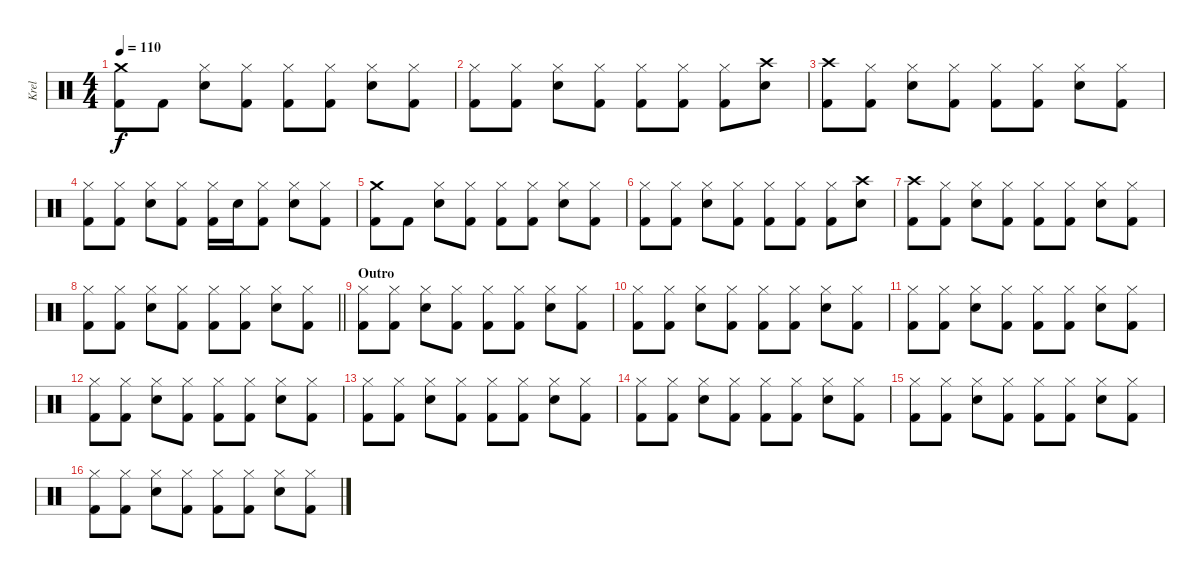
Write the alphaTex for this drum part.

\track ("Krel" "Krel") {instrument percussion}
\staff {score}
\articulation defaults
\ts (4 4)
\tempo 110
\clef neutral
\ks c
("Crash medium (hit)" "Kick (hit) 2").8{dy f} "Kick (hit) 2".8 ("Hi-Hat (closed)" "Snare (hit) 2").8 ("Hi-Hat (closed)" "Kick (hit) 2").8 ("Hi-Hat (closed)" "Kick (hit) 2").8 ("Hi-Hat (closed)" "Kick (hit) 2").8 ("Hi-Hat (closed)" "Snare (hit) 2").8 ("Hi-Hat (closed)" "Kick (hit) 2").8 |
("Hi-Hat (closed)" "Kick (hit) 2").8 ("Hi-Hat (closed)" "Kick (hit) 2").8 ("Hi-Hat (closed)" "Snare (hit) 2").8 ("Hi-Hat (closed)" "Kick (hit) 2").8 ("Hi-Hat (closed)" "Kick (hit) 2").8 ("Hi-Hat (closed)" "Kick (hit) 2").8 ("Hi-Hat (closed)" "Kick (hit) 2").8 ("Crash high (hit)" "Snare (hit) 2").8 |
("Crash high (hit)" "Kick (hit) 2").8 ("Hi-Hat (closed)" "Kick (hit) 2").8 ("Hi-Hat (closed)" "Snare (hit) 2").8 ("Hi-Hat (closed)" "Kick (hit) 2").8 ("Hi-Hat (closed)" "Kick (hit) 2").8 ("Hi-Hat (closed)" "Kick (hit) 2").8 ("Hi-Hat (closed)" "Snare (hit) 2").8 ("Hi-Hat (closed)" "Kick (hit) 2").8 |
("Hi-Hat (closed)" "Kick (hit) 2").8 ("Hi-Hat (closed)" "Kick (hit) 2").8 ("Hi-Hat (closed)" "Snare (hit) 2").8 ("Hi-Hat (closed)" "Kick (hit) 2").8 ("Hi-Hat (closed)" "Kick (hit) 2").16 "Snare (hit) 2".16 ("Hi-Hat (closed)" "Kick (hit) 2").8 ("Hi-Hat (closed)" "Snare (hit) 2").8 ("Hi-Hat (closed)" "Kick (hit) 2").8 |
("Crash medium (hit)" "Kick (hit) 2").8 "Kick (hit) 2".8 ("Hi-Hat (closed)" "Snare (hit) 2").8 ("Hi-Hat (closed)" "Kick (hit) 2").8 ("Hi-Hat (closed)" "Kick (hit) 2").8 ("Hi-Hat (closed)" "Kick (hit) 2").8 ("Hi-Hat (closed)" "Snare (hit) 2").8 ("Hi-Hat (closed)" "Kick (hit) 2").8 |
("Hi-Hat (closed)" "Kick (hit) 2").8 ("Hi-Hat (closed)" "Kick (hit) 2").8 ("Hi-Hat (closed)" "Snare (hit) 2").8 ("Hi-Hat (closed)" "Kick (hit) 2").8 ("Hi-Hat (closed)" "Kick (hit) 2").8 ("Hi-Hat (closed)" "Kick (hit) 2").8 ("Hi-Hat (closed)" "Kick (hit) 2").8 ("Crash high (hit)" "Snare (hit) 2").8 |
("Crash high (hit)" "Kick (hit) 2").8 ("Hi-Hat (closed)" "Kick (hit) 2").8 ("Hi-Hat (closed)" "Snare (hit) 2").8 ("Hi-Hat (closed)" "Kick (hit) 2").8 ("Hi-Hat (closed)" "Kick (hit) 2").8 ("Hi-Hat (closed)" "Kick (hit) 2").8 ("Hi-Hat (closed)" "Snare (hit) 2").8 ("Hi-Hat (closed)" "Kick (hit) 2").8 |
\barLineRight lightlight
("Hi-Hat (closed)" "Kick (hit) 2").8 ("Hi-Hat (closed)" "Kick (hit) 2").8 ("Hi-Hat (closed)" "Snare (hit) 2").8 ("Hi-Hat (closed)" "Kick (hit) 2").8 ("Hi-Hat (closed)" "Kick (hit) 2").8 ("Hi-Hat (closed)" "Kick (hit) 2").8 ("Hi-Hat (closed)" "Snare (hit) 2").8 ("Hi-Hat (closed)" "Kick (hit) 2").8 |
\section ("" "Outro")
("Hi-Hat (closed)" "Kick (hit) 2").8 ("Hi-Hat (closed)" "Kick (hit) 2").8 ("Hi-Hat (closed)" "Snare (hit) 2").8 ("Hi-Hat (closed)" "Kick (hit) 2").8 ("Hi-Hat (closed)" "Kick (hit) 2").8 ("Hi-Hat (closed)" "Kick (hit) 2").8 ("Hi-Hat (closed)" "Snare (hit) 2").8 ("Hi-Hat (closed)" "Kick (hit) 2").8 |
("Hi-Hat (closed)" "Kick (hit) 2").8 ("Hi-Hat (closed)" "Kick (hit) 2").8 ("Hi-Hat (closed)" "Snare (hit) 2").8 ("Hi-Hat (closed)" "Kick (hit) 2").8 ("Hi-Hat (closed)" "Kick (hit) 2").8 ("Hi-Hat (closed)" "Kick (hit) 2").8 ("Hi-Hat (closed)" "Snare (hit) 2").8 ("Hi-Hat (closed)" "Kick (hit) 2").8 |
("Hi-Hat (closed)" "Kick (hit) 2").8 ("Hi-Hat (closed)" "Kick (hit) 2").8 ("Hi-Hat (closed)" "Snare (hit) 2").8 ("Hi-Hat (closed)" "Kick (hit) 2").8 ("Hi-Hat (closed)" "Kick (hit) 2").8 ("Hi-Hat (closed)" "Kick (hit) 2").8 ("Hi-Hat (closed)" "Snare (hit) 2").8 ("Hi-Hat (closed)" "Kick (hit) 2").8 |
("Hi-Hat (closed)" "Kick (hit) 2").8 ("Hi-Hat (closed)" "Kick (hit) 2").8 ("Hi-Hat (closed)" "Snare (hit) 2").8 ("Hi-Hat (closed)" "Kick (hit) 2").8 ("Hi-Hat (closed)" "Kick (hit) 2").8 ("Hi-Hat (closed)" "Kick (hit) 2").8 ("Hi-Hat (closed)" "Snare (hit) 2").8 ("Hi-Hat (closed)" "Kick (hit) 2").8 |
("Hi-Hat (closed)" "Kick (hit) 2").8 ("Hi-Hat (closed)" "Kick (hit) 2").8 ("Hi-Hat (closed)" "Snare (hit) 2").8 ("Hi-Hat (closed)" "Kick (hit) 2").8 ("Hi-Hat (closed)" "Kick (hit) 2").8 ("Hi-Hat (closed)" "Kick (hit) 2").8 ("Hi-Hat (closed)" "Snare (hit) 2").8 ("Hi-Hat (closed)" "Kick (hit) 2").8 |
("Hi-Hat (closed)" "Kick (hit) 2").8 ("Hi-Hat (closed)" "Kick (hit) 2").8 ("Hi-Hat (closed)" "Snare (hit) 2").8 ("Hi-Hat (closed)" "Kick (hit) 2").8 ("Hi-Hat (closed)" "Kick (hit) 2").8 ("Hi-Hat (closed)" "Kick (hit) 2").8 ("Hi-Hat (closed)" "Snare (hit) 2").8 ("Hi-Hat (closed)" "Kick (hit) 2").8 |
("Hi-Hat (closed)" "Kick (hit) 2").8 ("Hi-Hat (closed)" "Kick (hit) 2").8 ("Hi-Hat (closed)" "Snare (hit) 2").8 ("Hi-Hat (closed)" "Kick (hit) 2").8 ("Hi-Hat (closed)" "Kick (hit) 2").8 ("Hi-Hat (closed)" "Kick (hit) 2").8 ("Hi-Hat (closed)" "Snare (hit) 2").8 ("Hi-Hat (closed)" "Kick (hit) 2").8 |
("Hi-Hat (closed)" "Kick (hit) 2").8 ("Hi-Hat (closed)" "Kick (hit) 2").8 ("Hi-Hat (closed)" "Snare (hit) 2").8 ("Hi-Hat (closed)" "Kick (hit) 2").8 ("Hi-Hat (closed)" "Kick (hit) 2").8 ("Hi-Hat (closed)" "Kick (hit) 2").8 ("Hi-Hat (closed)" "Snare (hit) 2").8 ("Hi-Hat (closed)" "Kick (hit) 2").8
